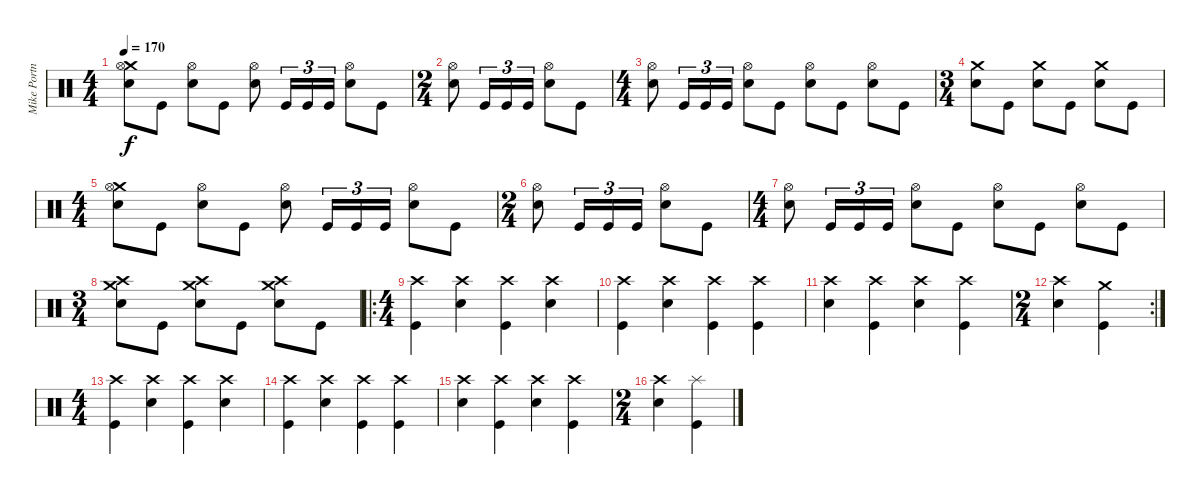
\track ("Mike Portnoy" "Mike Portn") {instrument percussion}
\staff {score}
\articulation defaults
\ts (4 4)
\tempo 170
\clef neutral
\ks c
("Crash medium (hit)" "Hi-Hat (open)" "Electric Snare (hit)").8{dy f} "Kick (hit)".8 ("Hi-Hat (open)" "Electric Snare (hit)").8 "Kick (hit)".8 ("Hi-Hat (open)" "Electric Snare (hit)").8 "Kick (hit)".16{tu (3 2)} "Kick (hit)".16{tu (3 2)} "Kick (hit)".16{tu (3 2)} ("Hi-Hat (open)" "Electric Snare (hit)").8 "Kick (hit)".8 |
\ts (2 4)
("Hi-Hat (open)" "Electric Snare (hit)").8 "Kick (hit)".16{tu (3 2)} "Kick (hit)".16{tu (3 2)} "Kick (hit)".16{tu (3 2)} ("Hi-Hat (open)" "Electric Snare (hit)").8 "Kick (hit)".8 |
\ts (4 4)
("Hi-Hat (open)" "Electric Snare (hit)").8 "Kick (hit)".16{tu (3 2)} "Kick (hit)".16{tu (3 2)} "Kick (hit)".16{tu (3 2)} ("Hi-Hat (open)" "Electric Snare (hit)").8 "Kick (hit)".8 ("Hi-Hat (open)" "Electric Snare (hit)").8 "Kick (hit)".8 ("Hi-Hat (open)" "Electric Snare (hit)").8 "Kick (hit)".8 |
\ts (3 4)
("Crash medium (hit)" "Electric Snare (hit)").8 "Kick (hit)".8 ("Crash medium (hit)" "Electric Snare (hit)").8 "Kick (hit)".8 ("Crash medium (hit)" "Electric Snare (hit)").8 "Kick (hit)".8 |
\ts (4 4)
("Crash medium (hit)" "Hi-Hat (open)" "Electric Snare (hit)").8 "Kick (hit)".8 ("Hi-Hat (open)" "Electric Snare (hit)").8 "Kick (hit)".8 ("Hi-Hat (open)" "Electric Snare (hit)").8 "Kick (hit)".16{tu (3 2)} "Kick (hit)".16{tu (3 2)} "Kick (hit)".16{tu (3 2)} ("Hi-Hat (open)" "Electric Snare (hit)").8 "Kick (hit)".8 |
\ts (2 4)
("Hi-Hat (open)" "Electric Snare (hit)").8 "Kick (hit)".16{tu (3 2)} "Kick (hit)".16{tu (3 2)} "Kick (hit)".16{tu (3 2)} ("Hi-Hat (open)" "Electric Snare (hit)").8 "Kick (hit)".8 |
\ts (4 4)
("Hi-Hat (open)" "Electric Snare (hit)").8 "Kick (hit)".16{tu (3 2)} "Kick (hit)".16{tu (3 2)} "Kick (hit)".16{tu (3 2)} ("Hi-Hat (open)" "Electric Snare (hit)").8 "Kick (hit)".8 ("Hi-Hat (open)" "Electric Snare (hit)").8 "Kick (hit)".8 ("Hi-Hat (open)" "Electric Snare (hit)").8 "Kick (hit)".8 |
\ts (3 4)
("Crash medium (hit)" "Crash high (hit)" "Electric Snare (hit)").8 "Kick (hit)".8 ("Crash medium (hit)" "Crash high (hit)" "Electric Snare (hit)").8 "Kick (hit)".8 ("Crash medium (hit)" "Crash high (hit)" "Electric Snare (hit)").8 "Kick (hit)".8 |
\ro
\ts (4 4)
("Crash high (hit)" "Kick (hit)").4 ("Crash high (hit)" "Electric Snare (hit)").4 ("Crash high (hit)" "Kick (hit)").4 ("Crash high (hit)" "Electric Snare (hit)").4 |
("Crash high (hit)" "Kick (hit)").4 ("Crash high (hit)" "Electric Snare (hit)").4 ("Crash high (hit)" "Kick (hit)").4 ("Crash high (hit)" "Kick (hit)").4 |
("Crash high (hit)" "Electric Snare (hit)").4 ("Crash high (hit)" "Kick (hit)").4 ("Crash high (hit)" "Electric Snare (hit)").4 ("Crash high (hit)" "Kick (hit)").4 |
\rc 2
\ts (2 4)
("Crash high (hit)" "Electric Snare (hit)").4 ("Crash medium (hit)" "Kick (hit)").4 |
\ts (4 4)
("Crash high (hit)" "Kick (hit)").4 ("Crash high (hit)" "Electric Snare (hit)").4 ("Crash high (hit)" "Kick (hit)").4 ("Crash high (hit)" "Electric Snare (hit)").4 |
("Crash high (hit)" "Kick (hit)").4 ("Crash high (hit)" "Electric Snare (hit)").4 ("Crash high (hit)" "Kick (hit)").4 ("Crash high (hit)" "Kick (hit)").4 |
("Crash high (hit)" "Electric Snare (hit)").4 ("Crash high (hit)" "Kick (hit)").4 ("Crash high (hit)" "Electric Snare (hit)").4 ("Crash high (hit)" "Kick (hit)").4 |
\ts (2 4)
("Crash high (hit)" "Electric Snare (hit)").4 ("Splash (hit)" "Kick (hit)").4
